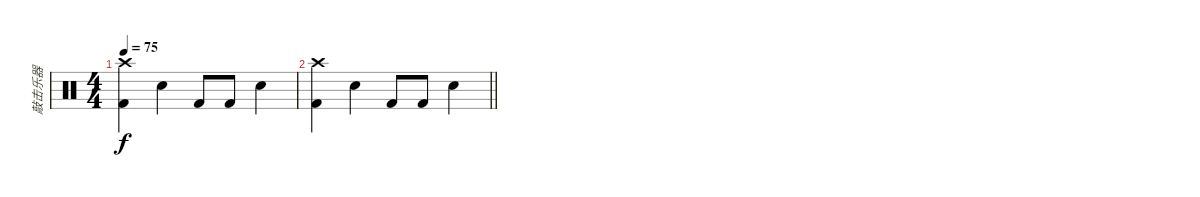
\track ("敲击乐器" "敲击乐器") {instrument percussion}
\staff {score}
\articulation defaults
\ts (4 4)
\tempo 75
\clef neutral
\ks c
("Crash high (hit)" "Kick (hit) 2").4{dy f} "Snare (hit) 2".4 "Kick (hit) 2".8 "Kick (hit) 2".8 "Snare (hit) 2".4 |
\barLineRight lightlight
("Crash high (hit)" "Kick (hit) 2").4 "Snare (hit) 2".4 "Kick (hit) 2".8 "Kick (hit) 2".8 "Snare (hit) 2".4
